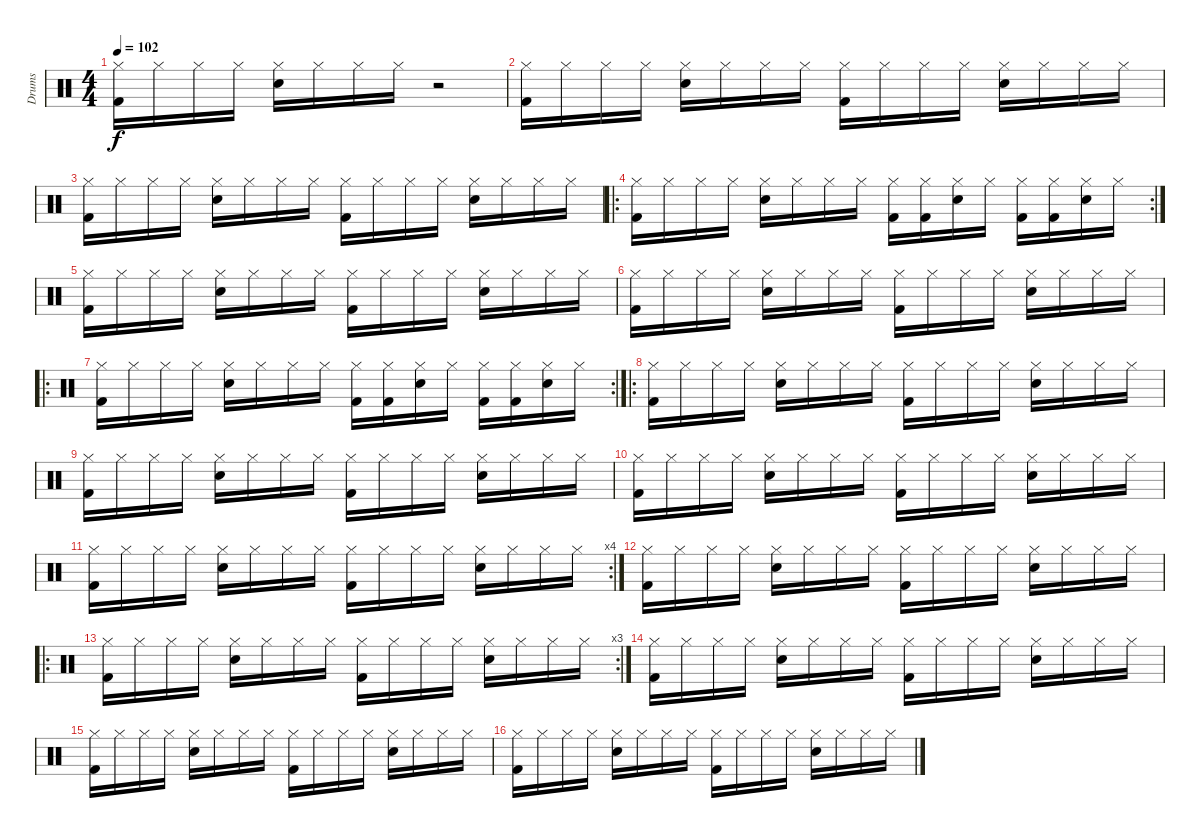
\track ("Drums" "Drums") {instrument percussion}
\staff {score}
\articulation defaults
\ts (4 4)
\tempo 102
\clef neutral
\ks c
("Hi-Hat (closed)" "Kick (hit) 2").16{dy f} "Hi-Hat (closed)".16 "Hi-Hat (closed)".16 "Hi-Hat (closed)".16 ("Hi-Hat (closed)" "Electric Snare (hit)").16 "Hi-Hat (closed)".16 "Hi-Hat (closed)".16 "Hi-Hat (closed)".16 r.2 |
("Hi-Hat (closed)" "Kick (hit) 2").16 "Hi-Hat (closed)".16 "Hi-Hat (closed)".16 "Hi-Hat (closed)".16 ("Hi-Hat (closed)" "Electric Snare (hit)").16 "Hi-Hat (closed)".16 "Hi-Hat (closed)".16 "Hi-Hat (closed)".16 ("Hi-Hat (closed)" "Kick (hit) 2").16 "Hi-Hat (closed)".16 "Hi-Hat (closed)".16 "Hi-Hat (closed)".16 ("Hi-Hat (closed)" "Electric Snare (hit)").16 "Hi-Hat (closed)".16 "Hi-Hat (closed)".16 "Hi-Hat (closed)".16 |
("Hi-Hat (closed)" "Kick (hit) 2").16 "Hi-Hat (closed)".16 "Hi-Hat (closed)".16 "Hi-Hat (closed)".16 ("Hi-Hat (closed)" "Electric Snare (hit)").16 "Hi-Hat (closed)".16 "Hi-Hat (closed)".16 "Hi-Hat (closed)".16 ("Hi-Hat (closed)" "Kick (hit) 2").16 "Hi-Hat (closed)".16 "Hi-Hat (closed)".16 "Hi-Hat (closed)".16 ("Hi-Hat (closed)" "Electric Snare (hit)").16 "Hi-Hat (closed)".16 "Hi-Hat (closed)".16 "Hi-Hat (closed)".16 |
\ro
\rc 2
("Hi-Hat (closed)" "Kick (hit) 2").16 "Hi-Hat (closed)".16 "Hi-Hat (closed)".16 "Hi-Hat (closed)".16 ("Hi-Hat (closed)" "Electric Snare (hit)").16 "Hi-Hat (closed)".16 "Hi-Hat (closed)".16 "Hi-Hat (closed)".16 ("Hi-Hat (closed)" "Kick (hit) 2").16 ("Hi-Hat (closed)" "Kick (hit) 2").16 ("Hi-Hat (closed)" "Electric Snare (hit)").16 "Hi-Hat (closed)".16 ("Hi-Hat (closed)" "Kick (hit) 2").16 ("Hi-Hat (closed)" "Kick (hit) 2").16 ("Hi-Hat (closed)" "Electric Snare (hit)").16 "Hi-Hat (closed)".16 |
("Hi-Hat (closed)" "Kick (hit) 2").16 "Hi-Hat (closed)".16 "Hi-Hat (closed)".16 "Hi-Hat (closed)".16 ("Hi-Hat (closed)" "Electric Snare (hit)").16 "Hi-Hat (closed)".16 "Hi-Hat (closed)".16 "Hi-Hat (closed)".16 ("Hi-Hat (closed)" "Kick (hit) 2").16 "Hi-Hat (closed)".16 "Hi-Hat (closed)".16 "Hi-Hat (closed)".16 ("Hi-Hat (closed)" "Electric Snare (hit)").16 "Hi-Hat (closed)".16 "Hi-Hat (closed)".16 "Hi-Hat (closed)".16 |
("Hi-Hat (closed)" "Kick (hit) 2").16 "Hi-Hat (closed)".16 "Hi-Hat (closed)".16 "Hi-Hat (closed)".16 ("Hi-Hat (closed)" "Electric Snare (hit)").16 "Hi-Hat (closed)".16 "Hi-Hat (closed)".16 "Hi-Hat (closed)".16 ("Hi-Hat (closed)" "Kick (hit) 2").16 "Hi-Hat (closed)".16 "Hi-Hat (closed)".16 "Hi-Hat (closed)".16 ("Hi-Hat (closed)" "Electric Snare (hit)").16 "Hi-Hat (closed)".16 "Hi-Hat (closed)".16 "Hi-Hat (closed)".16 |
\ro
\rc 2
("Hi-Hat (closed)" "Kick (hit) 2").16 "Hi-Hat (closed)".16 "Hi-Hat (closed)".16 "Hi-Hat (closed)".16 ("Hi-Hat (closed)" "Electric Snare (hit)").16 "Hi-Hat (closed)".16 "Hi-Hat (closed)".16 "Hi-Hat (closed)".16 ("Hi-Hat (closed)" "Kick (hit) 2").16 ("Hi-Hat (closed)" "Kick (hit) 2").16 ("Hi-Hat (closed)" "Electric Snare (hit)").16 "Hi-Hat (closed)".16 ("Hi-Hat (closed)" "Kick (hit) 2").16 ("Hi-Hat (closed)" "Kick (hit) 2").16 ("Hi-Hat (closed)" "Electric Snare (hit)").16 "Hi-Hat (closed)".16 |
\ro
("Hi-Hat (closed)" "Kick (hit) 2").16 "Hi-Hat (closed)".16 "Hi-Hat (closed)".16 "Hi-Hat (closed)".16 ("Hi-Hat (closed)" "Electric Snare (hit)").16 "Hi-Hat (closed)".16 "Hi-Hat (closed)".16 "Hi-Hat (closed)".16 ("Hi-Hat (closed)" "Kick (hit) 2").16 "Hi-Hat (closed)".16 "Hi-Hat (closed)".16 "Hi-Hat (closed)".16 ("Hi-Hat (closed)" "Electric Snare (hit)").16 "Hi-Hat (closed)".16 "Hi-Hat (closed)".16 "Hi-Hat (closed)".16 |
("Hi-Hat (closed)" "Kick (hit) 2").16 "Hi-Hat (closed)".16 "Hi-Hat (closed)".16 "Hi-Hat (closed)".16 ("Hi-Hat (closed)" "Electric Snare (hit)").16 "Hi-Hat (closed)".16 "Hi-Hat (closed)".16 "Hi-Hat (closed)".16 ("Hi-Hat (closed)" "Kick (hit) 2").16 "Hi-Hat (closed)".16 "Hi-Hat (closed)".16 "Hi-Hat (closed)".16 ("Hi-Hat (closed)" "Electric Snare (hit)").16 "Hi-Hat (closed)".16 "Hi-Hat (closed)".16 "Hi-Hat (closed)".16 |
("Hi-Hat (closed)" "Kick (hit) 2").16 "Hi-Hat (closed)".16 "Hi-Hat (closed)".16 "Hi-Hat (closed)".16 ("Hi-Hat (closed)" "Electric Snare (hit)").16 "Hi-Hat (closed)".16 "Hi-Hat (closed)".16 "Hi-Hat (closed)".16 ("Hi-Hat (closed)" "Kick (hit) 2").16 "Hi-Hat (closed)".16 "Hi-Hat (closed)".16 "Hi-Hat (closed)".16 ("Hi-Hat (closed)" "Electric Snare (hit)").16 "Hi-Hat (closed)".16 "Hi-Hat (closed)".16 "Hi-Hat (closed)".16 |
\rc 4
("Hi-Hat (closed)" "Kick (hit) 2").16 "Hi-Hat (closed)".16 "Hi-Hat (closed)".16 "Hi-Hat (closed)".16 ("Hi-Hat (closed)" "Electric Snare (hit)").16 "Hi-Hat (closed)".16 "Hi-Hat (closed)".16 "Hi-Hat (closed)".16 ("Hi-Hat (closed)" "Kick (hit) 2").16 "Hi-Hat (closed)".16 "Hi-Hat (closed)".16 "Hi-Hat (closed)".16 ("Hi-Hat (closed)" "Electric Snare (hit)").16 "Hi-Hat (closed)".16 "Hi-Hat (closed)".16 "Hi-Hat (closed)".16 |
("Hi-Hat (closed)" "Kick (hit) 2").16 "Hi-Hat (closed)".16 "Hi-Hat (closed)".16 "Hi-Hat (closed)".16 ("Hi-Hat (closed)" "Electric Snare (hit)").16 "Hi-Hat (closed)".16 "Hi-Hat (closed)".16 "Hi-Hat (closed)".16 ("Hi-Hat (closed)" "Kick (hit) 2").16 "Hi-Hat (closed)".16 "Hi-Hat (closed)".16 "Hi-Hat (closed)".16 ("Hi-Hat (closed)" "Electric Snare (hit)").16 "Hi-Hat (closed)".16 "Hi-Hat (closed)".16 "Hi-Hat (closed)".16 |
\ro
\rc 3
("Hi-Hat (closed)" "Kick (hit) 2").16 "Hi-Hat (closed)".16 "Hi-Hat (closed)".16 "Hi-Hat (closed)".16 ("Hi-Hat (closed)" "Electric Snare (hit)").16 "Hi-Hat (closed)".16 "Hi-Hat (closed)".16 "Hi-Hat (closed)".16 ("Hi-Hat (closed)" "Kick (hit) 2").16 "Hi-Hat (closed)".16 "Hi-Hat (closed)".16 "Hi-Hat (closed)".16 ("Hi-Hat (closed)" "Electric Snare (hit)").16 "Hi-Hat (closed)".16 "Hi-Hat (closed)".16 "Hi-Hat (closed)".16 |
("Hi-Hat (closed)" "Kick (hit) 2").16 "Hi-Hat (closed)".16 "Hi-Hat (closed)".16 "Hi-Hat (closed)".16 ("Hi-Hat (closed)" "Electric Snare (hit)").16 "Hi-Hat (closed)".16 "Hi-Hat (closed)".16 "Hi-Hat (closed)".16 ("Hi-Hat (closed)" "Kick (hit) 2").16 "Hi-Hat (closed)".16 "Hi-Hat (closed)".16 "Hi-Hat (closed)".16 ("Hi-Hat (closed)" "Electric Snare (hit)").16 "Hi-Hat (closed)".16 "Hi-Hat (closed)".16 "Hi-Hat (closed)".16 |
("Hi-Hat (closed)" "Kick (hit) 2").16 "Hi-Hat (closed)".16 "Hi-Hat (closed)".16 "Hi-Hat (closed)".16 ("Hi-Hat (closed)" "Electric Snare (hit)").16 "Hi-Hat (closed)".16 "Hi-Hat (closed)".16 "Hi-Hat (closed)".16 ("Hi-Hat (closed)" "Kick (hit) 2").16 "Hi-Hat (closed)".16 "Hi-Hat (closed)".16 "Hi-Hat (closed)".16 ("Hi-Hat (closed)" "Electric Snare (hit)").16 "Hi-Hat (closed)".16 "Hi-Hat (closed)".16 "Hi-Hat (closed)".16 |
("Hi-Hat (closed)" "Kick (hit) 2").16 "Hi-Hat (closed)".16 "Hi-Hat (closed)".16 "Hi-Hat (closed)".16 ("Hi-Hat (closed)" "Electric Snare (hit)").16 "Hi-Hat (closed)".16 "Hi-Hat (closed)".16 "Hi-Hat (closed)".16 ("Hi-Hat (closed)" "Kick (hit) 2").16 "Hi-Hat (closed)".16 "Hi-Hat (closed)".16 "Hi-Hat (closed)".16 ("Hi-Hat (closed)" "Electric Snare (hit)").16 "Hi-Hat (closed)".16 "Hi-Hat (closed)".16 "Hi-Hat (closed)".16
